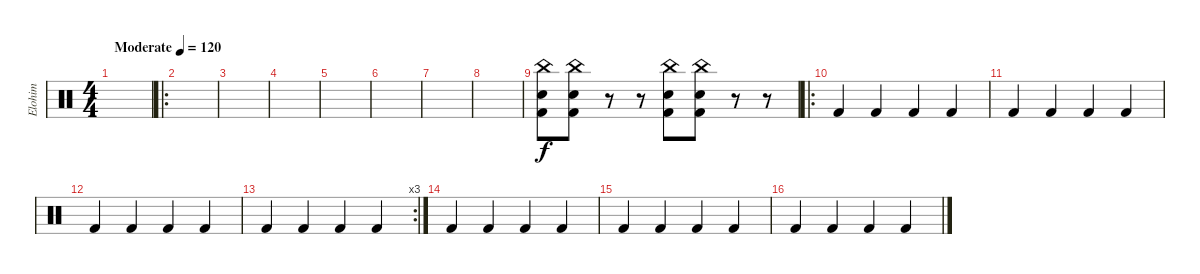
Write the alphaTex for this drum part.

\track ("Elohim" "Elohim") {instrument percussion}
\staff {score}
\articulation defaults
\ts (4 4)
\tempo (120 "Moderate")
\clef neutral
\ks c
|
\ro
|
|
|
|
|
|
|
("Kick (hit) 2" "Snare (hit) 2" "China (hit)").8 ("Kick (hit) 2" "Snare (hit) 2" "China (hit)").8 r.8 r.8 ("Snare (hit) 2" "Kick (hit) 2" "China (hit)").8 ("Snare (hit) 2" "Kick (hit) 2" "China (hit)").8 r.8 r.8 |
\ro "Kick (hit) 2".4 "Kick (hit) 2".4 "Kick (hit) 2".4 "Kick (hit) 2".4
|
"Kick (hit) 2".4 "Kick (hit) 2".4 "Kick (hit) 2".4 "Kick (hit) 2".4 |
"Kick (hit) 2".4 "Kick (hit) 2".4 "Kick (hit) 2".4 "Kick (hit) 2".4 |
\rc 3 "Kick (hit) 2".4 "Kick (hit) 2".4 "Kick (hit) 2".4 "Kick (hit) 2".4
|
"Kick (hit) 2".4 "Kick (hit) 2".4 "Kick (hit) 2".4 "Kick (hit) 2".4 |
"Kick (hit) 2".4 "Kick (hit) 2".4 "Kick (hit) 2".4 "Kick (hit) 2".4 |
"Kick (hit) 2".4 "Kick (hit) 2".4 "Kick (hit) 2".4 "Kick (hit) 2".4
